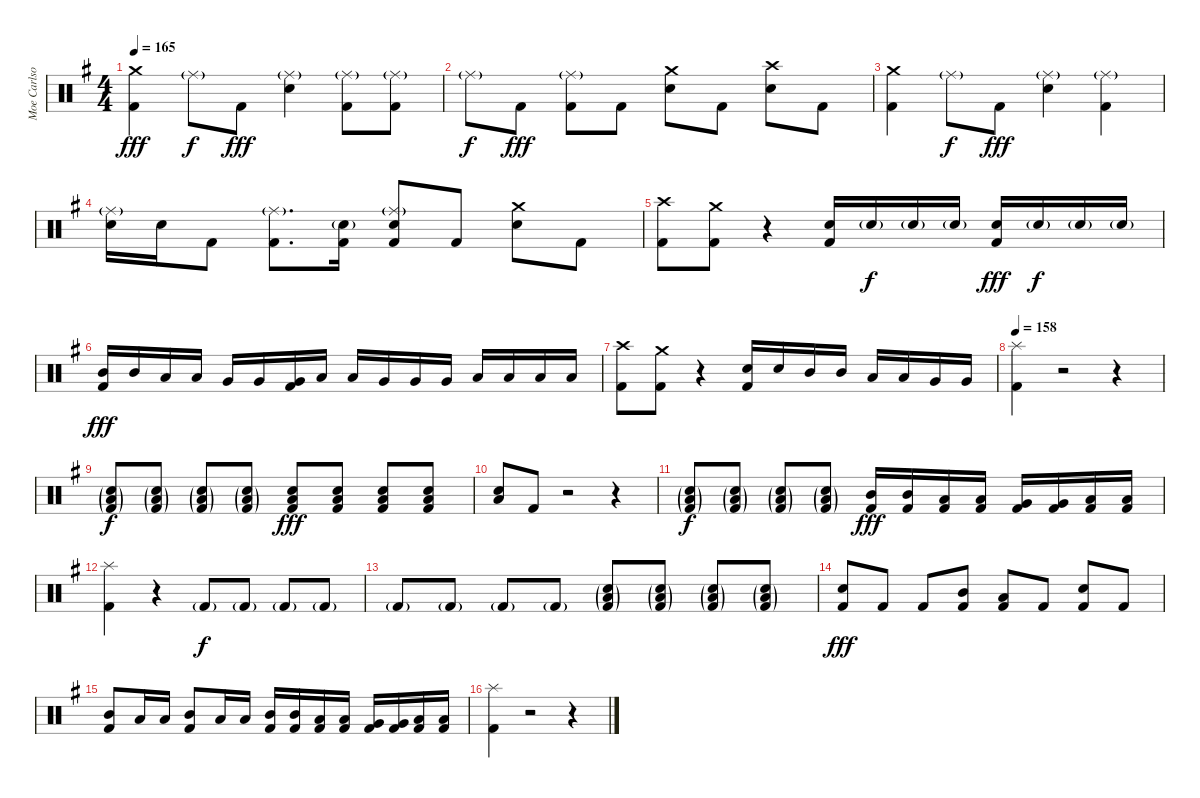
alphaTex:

\track ("Moe Carlson" "Moe Carlso") {instrument percussion}
\staff {score}
\articulation defaults
\ts (4 4)
\tempo 165
\clef neutral
\ks g
("Crash medium (hit)" "Kick (hit) 2").4{dy fff} "Ride (middle)"{g}.8{dy f} "Kick (hit) 2".8{dy fff} ("Ride (middle)"{g} "Electric Snare (hit)").4 ("Ride (middle)"{g} "Kick (hit) 2").8 ("Ride (middle)"{g} "Kick (hit) 2").8 |
"Ride (middle)"{g}.8{dy f} "Kick (hit) 2".8{dy fff} ("Ride (middle)"{g} "Kick (hit) 2").8 "Kick (hit) 2".8 ("Crash medium (hit)" "Electric Snare (hit)").8 "Kick (hit) 2".8 ("Crash high (hit)" "Electric Snare (hit)").8 "Kick (hit) 2".8 |
("Crash medium (hit)" "Kick (hit) 2").4 "Ride (middle)"{g}.8{dy f} "Kick (hit) 2".8{dy fff} ("Ride (middle)"{g} "Electric Snare (hit)").4 ("Ride (middle)"{g} "Kick (hit) 2").4 |
("Ride (middle)"{g} "Electric Snare (hit)").16 "Electric Snare (hit)".16 "Kick (hit) 2".8 ("Ride (middle)"{g} "Kick (hit) 2").8{d} ("Electric Snare (hit)"{g} "Kick (hit) 2").16 ("Ride (middle)"{g} "Electric Snare (hit)" "Kick (hit) 2").8 "Kick (hit) 2".8 ("Crash medium (hit)" "Electric Snare (hit)").8 "Kick (hit) 2".8 |
("Crash high (hit)" "Kick (hit) 2").8 ("Crash medium (hit)" "Kick (hit) 2").8 r.4 ("Electric Snare (hit)" "Kick (hit) 2").16 "Electric Snare (hit)"{g}.16{dy f} "Electric Snare (hit)"{g}.16 "Electric Snare (hit)"{g}.16 ("Electric Snare (hit)" "Kick (hit) 2").16{dy fff} "Electric Snare (hit)"{g}.16{dy f} "Electric Snare (hit)"{g}.16 "Electric Snare (hit)"{g}.16 |
("Mid Tom (hit)" "Kick (hit) 2").16{dy fff} "Mid Tom (hit)".16 "Low Tom (hit)".16 "Low Tom (hit)".16 "Very Low Tom (hit)".16 "Very Low Tom (hit)".16 ("Very Low Tom (hit)" "Kick (hit) 2").16 "Low Tom (hit)".16 "Low Tom (hit)".16 "Very Low Tom (hit)".16 "Very Low Tom (hit)".16 "Very Low Tom (hit)".16 "Low Floor Tom (hit)".16 "Low Floor Tom (hit)".16 "Low Floor Tom (hit)".16 "Low Floor Tom (hit)".16 |
("Crash high (hit)" "Kick (hit) 2").8 ("Crash medium (hit)" "Kick (hit) 2").8 r.4 ("Electric Snare (hit)" "Kick (hit) 2").16 "Electric Snare (hit)".16 "Mid Tom (hit)".16 "Mid Tom (hit)".16 "Low Tom (hit)".16 "Low Tom (hit)".16 "Very Low Tom (hit)".16 "Very Low Tom (hit)".16 |
\tempo 158
("Splash (hit)" "Kick (hit) 2").4 r.2 r.4 |
("Electric Snare (hit)"{g} "Low Floor Tom (hit)"{g} "Kick (hit) 2"{g}).8{dy f} ("Electric Snare (hit)"{g} "Low Floor Tom (hit)"{g} "Kick (hit) 2"{g}).8 ("Electric Snare (hit)"{g} "Low Floor Tom (hit)"{g} "Kick (hit) 2"{g}).8 ("Electric Snare (hit)"{g} "Low Floor Tom (hit)"{g} "Kick (hit) 2"{g}).8 ("Electric Snare (hit)" "Low Floor Tom (hit)" "Kick (hit) 2").8{dy fff} ("Electric Snare (hit)" "Low Floor Tom (hit)" "Kick (hit) 2").8 ("Electric Snare (hit)" "Low Floor Tom (hit)" "Kick (hit) 2").8 ("Electric Snare (hit)" "Low Floor Tom (hit)" "Kick (hit) 2").8 |
("Electric Snare (hit)" "Low Floor Tom (hit)").8 "Kick (hit) 2".8 r.2 r.4 |
("Electric Snare (hit)"{g} "Low Floor Tom (hit)"{g} "Kick (hit) 2"{g}).8{dy f} ("Electric Snare (hit)"{g} "Low Floor Tom (hit)"{g} "Kick (hit) 2"{g}).8 ("Electric Snare (hit)"{g} "Low Floor Tom (hit)"{g} "Kick (hit) 2"{g}).8 ("Electric Snare (hit)"{g} "Low Floor Tom (hit)"{g} "Kick (hit) 2"{g}).8 ("Mid Tom (hit)" "Kick (hit) 2").16{dy fff} ("Mid Tom (hit)" "Kick (hit) 2").16 ("Low Tom (hit)" "Kick (hit) 2").16 ("Low Tom (hit)" "Kick (hit) 2").16 ("Very Low Tom (hit)" "Kick (hit) 2").16 ("Very Low Tom (hit)" "Kick (hit) 2").16 ("Low Floor Tom (hit)" "Kick (hit) 2").16 ("Low Floor Tom (hit)" "Kick (hit) 2").16 |
("Splash (hit)" "Kick (hit) 2").4 r.4 "Kick (hit) 2"{g}.8{dy f} "Kick (hit) 2"{g}.8 "Kick (hit) 2"{g}.8 "Kick (hit) 2"{g}.8 |
"Kick (hit) 2"{g}.8 "Kick (hit) 2"{g}.8 "Kick (hit) 2"{g}.8 "Kick (hit) 2"{g}.8 ("Electric Snare (hit)"{g} "Low Floor Tom (hit)"{g} "Kick (hit) 2"{g}).8 ("Electric Snare (hit)"{g} "Low Floor Tom (hit)"{g} "Kick (hit) 2"{g}).8 ("Electric Snare (hit)"{g} "Low Floor Tom (hit)"{g} "Kick (hit) 2"{g}).8 ("Electric Snare (hit)"{g} "Low Floor Tom (hit)"{g} "Kick (hit) 2"{g}).8 |
("Electric Snare (hit)" "Kick (hit) 2").8{dy fff} "Kick (hit) 2".8 "Kick (hit) 2".8 ("Mid Tom (hit)" "Kick (hit) 2").8 ("Low Tom (hit)" "Kick (hit) 2").8 "Kick (hit) 2".8 ("Electric Snare (hit)" "Kick (hit) 2").8 "Kick (hit) 2".8 |
("Mid Tom (hit)" "Kick (hit) 2").8 "Low Tom (hit)".16 "Low Tom (hit)".16 ("Mid Tom (hit)" "Kick (hit) 2").8 "Low Tom (hit)".16 "Low Tom (hit)".16 ("Mid Tom (hit)" "Kick (hit) 2").16 ("Mid Tom (hit)" "Kick (hit) 2").16 ("Low Tom (hit)" "Kick (hit) 2").16 ("Low Tom (hit)" "Kick (hit) 2").16 ("Very Low Tom (hit)" "Kick (hit) 2").16 ("Very Low Tom (hit)" "Kick (hit) 2").16 ("Low Floor Tom (hit)" "Kick (hit) 2").16 ("Low Floor Tom (hit)" "Kick (hit) 2").16 |
("Splash (hit)" "Kick (hit) 2").4 r.2 r.4
